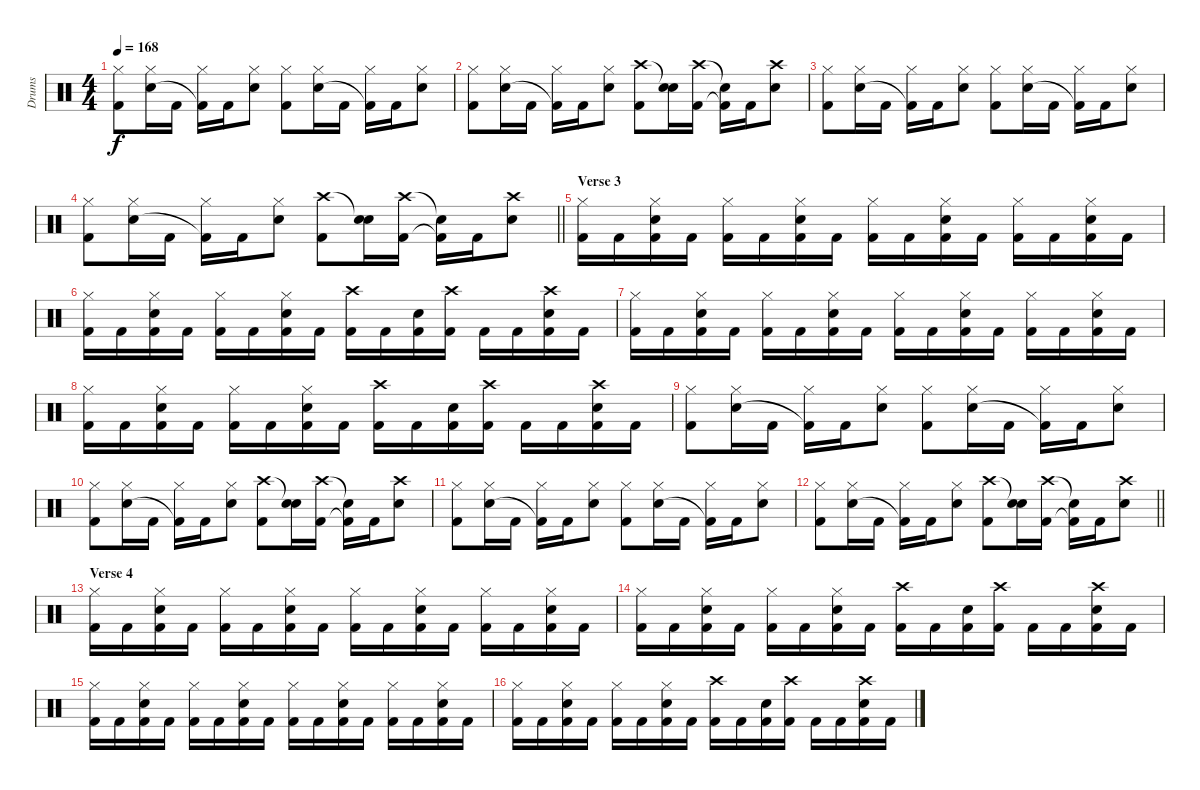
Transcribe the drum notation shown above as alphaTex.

\track ("Drums" "Drums") {instrument percussion}
\staff {score}
\articulation defaults
\ts (4 4)
\tempo 168
\clef neutral
\ks c
("Hi-Hat (closed)" "Kick (hit) 2").8{dy f} ("Hi-Hat (closed)" "Electric Snare (hit)").16 "Kick (hit) 2".16 ("Hi-Hat (closed)" "Kick (hit) 2"{t}).16 "Kick (hit) 2".16 ("Hi-Hat (closed)" "Electric Snare (hit)").8 ("Hi-Hat (closed)" "Kick (hit) 2").8 ("Hi-Hat (closed)" "Electric Snare (hit)").16 "Kick (hit) 2".16 ("Hi-Hat (closed)" "Kick (hit) 2"{t}).16 "Kick (hit) 2".16 ("Hi-Hat (closed)" "Electric Snare (hit)").8 |
("Hi-Hat (closed)" "Kick (hit) 2").8 ("Hi-Hat (closed)" "Electric Snare (hit)").16 "Kick (hit) 2".16 ("Hi-Hat (closed)" "Kick (hit) 2"{t}).16 "Kick (hit) 2".16 ("Hi-Hat (closed)" "Electric Snare (hit)").8 ("Crash high (hit)" "Kick (hit) 2").8 ("Snare (hit)"{t} "Electric Snare (hit)").16 ("Crash high (hit)" "Kick (hit) 2").16 ("Snare (hit)"{t} "Kick (hit) 2"{t}).16 "Kick (hit) 2".16 ("Crash high (hit)" "Electric Snare (hit)").8 |
("Hi-Hat (closed)" "Kick (hit) 2").8 ("Hi-Hat (closed)" "Electric Snare (hit)").16 "Kick (hit) 2".16 ("Hi-Hat (closed)" "Kick (hit) 2"{t}).16 "Kick (hit) 2".16 ("Hi-Hat (closed)" "Electric Snare (hit)").8 ("Hi-Hat (closed)" "Kick (hit) 2").8 ("Hi-Hat (closed)" "Electric Snare (hit)").16 "Kick (hit) 2".16 ("Hi-Hat (closed)" "Kick (hit) 2"{t}).16 "Kick (hit) 2".16 ("Hi-Hat (closed)" "Electric Snare (hit)").8 |
\barLineRight lightlight
("Hi-Hat (closed)" "Kick (hit) 2").8 ("Hi-Hat (closed)" "Electric Snare (hit)").16 "Kick (hit) 2".16 ("Hi-Hat (closed)" "Kick (hit) 2"{t}).16 "Kick (hit) 2".16 ("Hi-Hat (closed)" "Electric Snare (hit)").8 ("Crash high (hit)" "Kick (hit) 2").8 ("Snare (hit)"{t} "Electric Snare (hit)").16 ("Crash high (hit)" "Kick (hit) 2").16 ("Snare (hit)"{t} "Kick (hit) 2"{t}).16 "Kick (hit) 2".16 ("Crash high (hit)" "Electric Snare (hit)").8 |
\section ("" "Verse 3")
("Hi-Hat (closed)" "Kick (hit) 2").16 "Kick (hit) 2".16 ("Hi-Hat (closed)" "Electric Snare (hit)" "Kick (hit) 2").16 "Kick (hit) 2".16 ("Hi-Hat (closed)" "Kick (hit) 2").16 "Kick (hit) 2".16 ("Hi-Hat (closed)" "Electric Snare (hit)" "Kick (hit) 2").16 "Kick (hit) 2".16 ("Hi-Hat (closed)" "Kick (hit) 2").16 "Kick (hit) 2".16 ("Hi-Hat (closed)" "Electric Snare (hit)" "Kick (hit) 2").16 "Kick (hit) 2".16 ("Hi-Hat (closed)" "Kick (hit) 2").16 "Kick (hit) 2".16 ("Hi-Hat (closed)" "Electric Snare (hit)" "Kick (hit) 2").16 "Kick (hit) 2".16 |
("Hi-Hat (closed)" "Kick (hit) 2").16 "Kick (hit) 2".16 ("Hi-Hat (closed)" "Electric Snare (hit)" "Kick (hit) 2").16 "Kick (hit) 2".16 ("Hi-Hat (closed)" "Kick (hit) 2").16 "Kick (hit) 2".16 ("Hi-Hat (closed)" "Electric Snare (hit)" "Kick (hit) 2").16 "Kick (hit) 2".16 ("Crash high (hit)" "Kick (hit) 2").16 "Kick (hit) 2".16 ("Electric Snare (hit)" "Kick (hit) 2").16 ("Crash high (hit)" "Kick (hit) 2").16 "Kick (hit) 2".16 "Kick (hit) 2".16 ("Crash high (hit)" "Electric Snare (hit)" "Kick (hit) 2").16 "Kick (hit) 2".16 |
("Hi-Hat (closed)" "Kick (hit) 2").16 "Kick (hit) 2".16 ("Hi-Hat (closed)" "Electric Snare (hit)" "Kick (hit) 2").16 "Kick (hit) 2".16 ("Hi-Hat (closed)" "Kick (hit) 2").16 "Kick (hit) 2".16 ("Hi-Hat (closed)" "Electric Snare (hit)" "Kick (hit) 2").16 "Kick (hit) 2".16 ("Hi-Hat (closed)" "Kick (hit) 2").16 "Kick (hit) 2".16 ("Hi-Hat (closed)" "Electric Snare (hit)" "Kick (hit) 2").16 "Kick (hit) 2".16 ("Hi-Hat (closed)" "Kick (hit) 2").16 "Kick (hit) 2".16 ("Hi-Hat (closed)" "Electric Snare (hit)" "Kick (hit) 2").16 "Kick (hit) 2".16 |
("Hi-Hat (closed)" "Kick (hit) 2").16 "Kick (hit) 2".16 ("Hi-Hat (closed)" "Electric Snare (hit)" "Kick (hit) 2").16 "Kick (hit) 2".16 ("Hi-Hat (closed)" "Kick (hit) 2").16 "Kick (hit) 2".16 ("Hi-Hat (closed)" "Electric Snare (hit)" "Kick (hit) 2").16 "Kick (hit) 2".16 ("Crash high (hit)" "Kick (hit) 2").16 "Kick (hit) 2".16 ("Electric Snare (hit)" "Kick (hit) 2").16 ("Crash high (hit)" "Kick (hit) 2").16 "Kick (hit) 2".16 "Kick (hit) 2".16 ("Crash high (hit)" "Electric Snare (hit)" "Kick (hit) 2").16 "Kick (hit) 2".16 |
("Hi-Hat (closed)" "Kick (hit) 2").8 ("Hi-Hat (closed)" "Electric Snare (hit)").16 "Kick (hit) 2".16 ("Hi-Hat (closed)" "Kick (hit) 2"{t}).16 "Kick (hit) 2".16 ("Hi-Hat (closed)" "Electric Snare (hit)").8 ("Hi-Hat (closed)" "Kick (hit) 2").8 ("Hi-Hat (closed)" "Electric Snare (hit)").16 "Kick (hit) 2".16 ("Hi-Hat (closed)" "Kick (hit) 2"{t}).16 "Kick (hit) 2".16 ("Hi-Hat (closed)" "Electric Snare (hit)").8 |
("Hi-Hat (closed)" "Kick (hit) 2").8 ("Hi-Hat (closed)" "Electric Snare (hit)").16 "Kick (hit) 2".16 ("Hi-Hat (closed)" "Kick (hit) 2"{t}).16 "Kick (hit) 2".16 ("Hi-Hat (closed)" "Electric Snare (hit)").8 ("Crash high (hit)" "Kick (hit) 2").8 ("Snare (hit)"{t} "Electric Snare (hit)").16 ("Crash high (hit)" "Kick (hit) 2").16 ("Snare (hit)"{t} "Kick (hit) 2"{t}).16 "Kick (hit) 2".16 ("Crash high (hit)" "Electric Snare (hit)").8 |
("Hi-Hat (closed)" "Kick (hit) 2").8 ("Hi-Hat (closed)" "Electric Snare (hit)").16 "Kick (hit) 2".16 ("Hi-Hat (closed)" "Kick (hit) 2"{t}).16 "Kick (hit) 2".16 ("Hi-Hat (closed)" "Electric Snare (hit)").8 ("Hi-Hat (closed)" "Kick (hit) 2").8 ("Hi-Hat (closed)" "Electric Snare (hit)").16 "Kick (hit) 2".16 ("Hi-Hat (closed)" "Kick (hit) 2"{t}).16 "Kick (hit) 2".16 ("Hi-Hat (closed)" "Electric Snare (hit)").8 |
\barLineRight lightlight
("Hi-Hat (closed)" "Kick (hit) 2").8 ("Hi-Hat (closed)" "Electric Snare (hit)").16 "Kick (hit) 2".16 ("Hi-Hat (closed)" "Kick (hit) 2"{t}).16 "Kick (hit) 2".16 ("Hi-Hat (closed)" "Electric Snare (hit)").8 ("Crash high (hit)" "Kick (hit) 2").8 ("Snare (hit)"{t} "Electric Snare (hit)").16 ("Crash high (hit)" "Kick (hit) 2").16 ("Snare (hit)"{t} "Kick (hit) 2"{t}).16 "Kick (hit) 2".16 ("Crash high (hit)" "Electric Snare (hit)").8 |
\section ("" "Verse 4")
("Hi-Hat (closed)" "Kick (hit) 2").16 "Kick (hit) 2".16 ("Hi-Hat (closed)" "Electric Snare (hit)" "Kick (hit) 2").16 "Kick (hit) 2".16 ("Hi-Hat (closed)" "Kick (hit) 2").16 "Kick (hit) 2".16 ("Hi-Hat (closed)" "Electric Snare (hit)" "Kick (hit) 2").16 "Kick (hit) 2".16 ("Hi-Hat (closed)" "Kick (hit) 2").16 "Kick (hit) 2".16 ("Hi-Hat (closed)" "Electric Snare (hit)" "Kick (hit) 2").16 "Kick (hit) 2".16 ("Hi-Hat (closed)" "Kick (hit) 2").16 "Kick (hit) 2".16 ("Hi-Hat (closed)" "Electric Snare (hit)" "Kick (hit) 2").16 "Kick (hit) 2".16 |
("Hi-Hat (closed)" "Kick (hit) 2").16 "Kick (hit) 2".16 ("Hi-Hat (closed)" "Electric Snare (hit)" "Kick (hit) 2").16 "Kick (hit) 2".16 ("Hi-Hat (closed)" "Kick (hit) 2").16 "Kick (hit) 2".16 ("Hi-Hat (closed)" "Electric Snare (hit)" "Kick (hit) 2").16 "Kick (hit) 2".16 ("Crash high (hit)" "Kick (hit) 2").16 "Kick (hit) 2".16 ("Electric Snare (hit)" "Kick (hit) 2").16 ("Crash high (hit)" "Kick (hit) 2").16 "Kick (hit) 2".16 "Kick (hit) 2".16 ("Crash high (hit)" "Electric Snare (hit)" "Kick (hit) 2").16 "Kick (hit) 2".16 |
("Hi-Hat (closed)" "Kick (hit) 2").16 "Kick (hit) 2".16 ("Hi-Hat (closed)" "Electric Snare (hit)" "Kick (hit) 2").16 "Kick (hit) 2".16 ("Hi-Hat (closed)" "Kick (hit) 2").16 "Kick (hit) 2".16 ("Hi-Hat (closed)" "Electric Snare (hit)" "Kick (hit) 2").16 "Kick (hit) 2".16 ("Hi-Hat (closed)" "Kick (hit) 2").16 "Kick (hit) 2".16 ("Hi-Hat (closed)" "Electric Snare (hit)" "Kick (hit) 2").16 "Kick (hit) 2".16 ("Hi-Hat (closed)" "Kick (hit) 2").16 "Kick (hit) 2".16 ("Hi-Hat (closed)" "Electric Snare (hit)" "Kick (hit) 2").16 "Kick (hit) 2".16 |
("Hi-Hat (closed)" "Kick (hit) 2").16 "Kick (hit) 2".16 ("Hi-Hat (closed)" "Electric Snare (hit)" "Kick (hit) 2").16 "Kick (hit) 2".16 ("Hi-Hat (closed)" "Kick (hit) 2").16 "Kick (hit) 2".16 ("Hi-Hat (closed)" "Electric Snare (hit)" "Kick (hit) 2").16 "Kick (hit) 2".16 ("Crash high (hit)" "Kick (hit) 2").16 "Kick (hit) 2".16 ("Electric Snare (hit)" "Kick (hit) 2").16 ("Crash high (hit)" "Kick (hit) 2").16 "Kick (hit) 2".16 "Kick (hit) 2".16 ("Crash high (hit)" "Electric Snare (hit)" "Kick (hit) 2").16 "Kick (hit) 2".16
